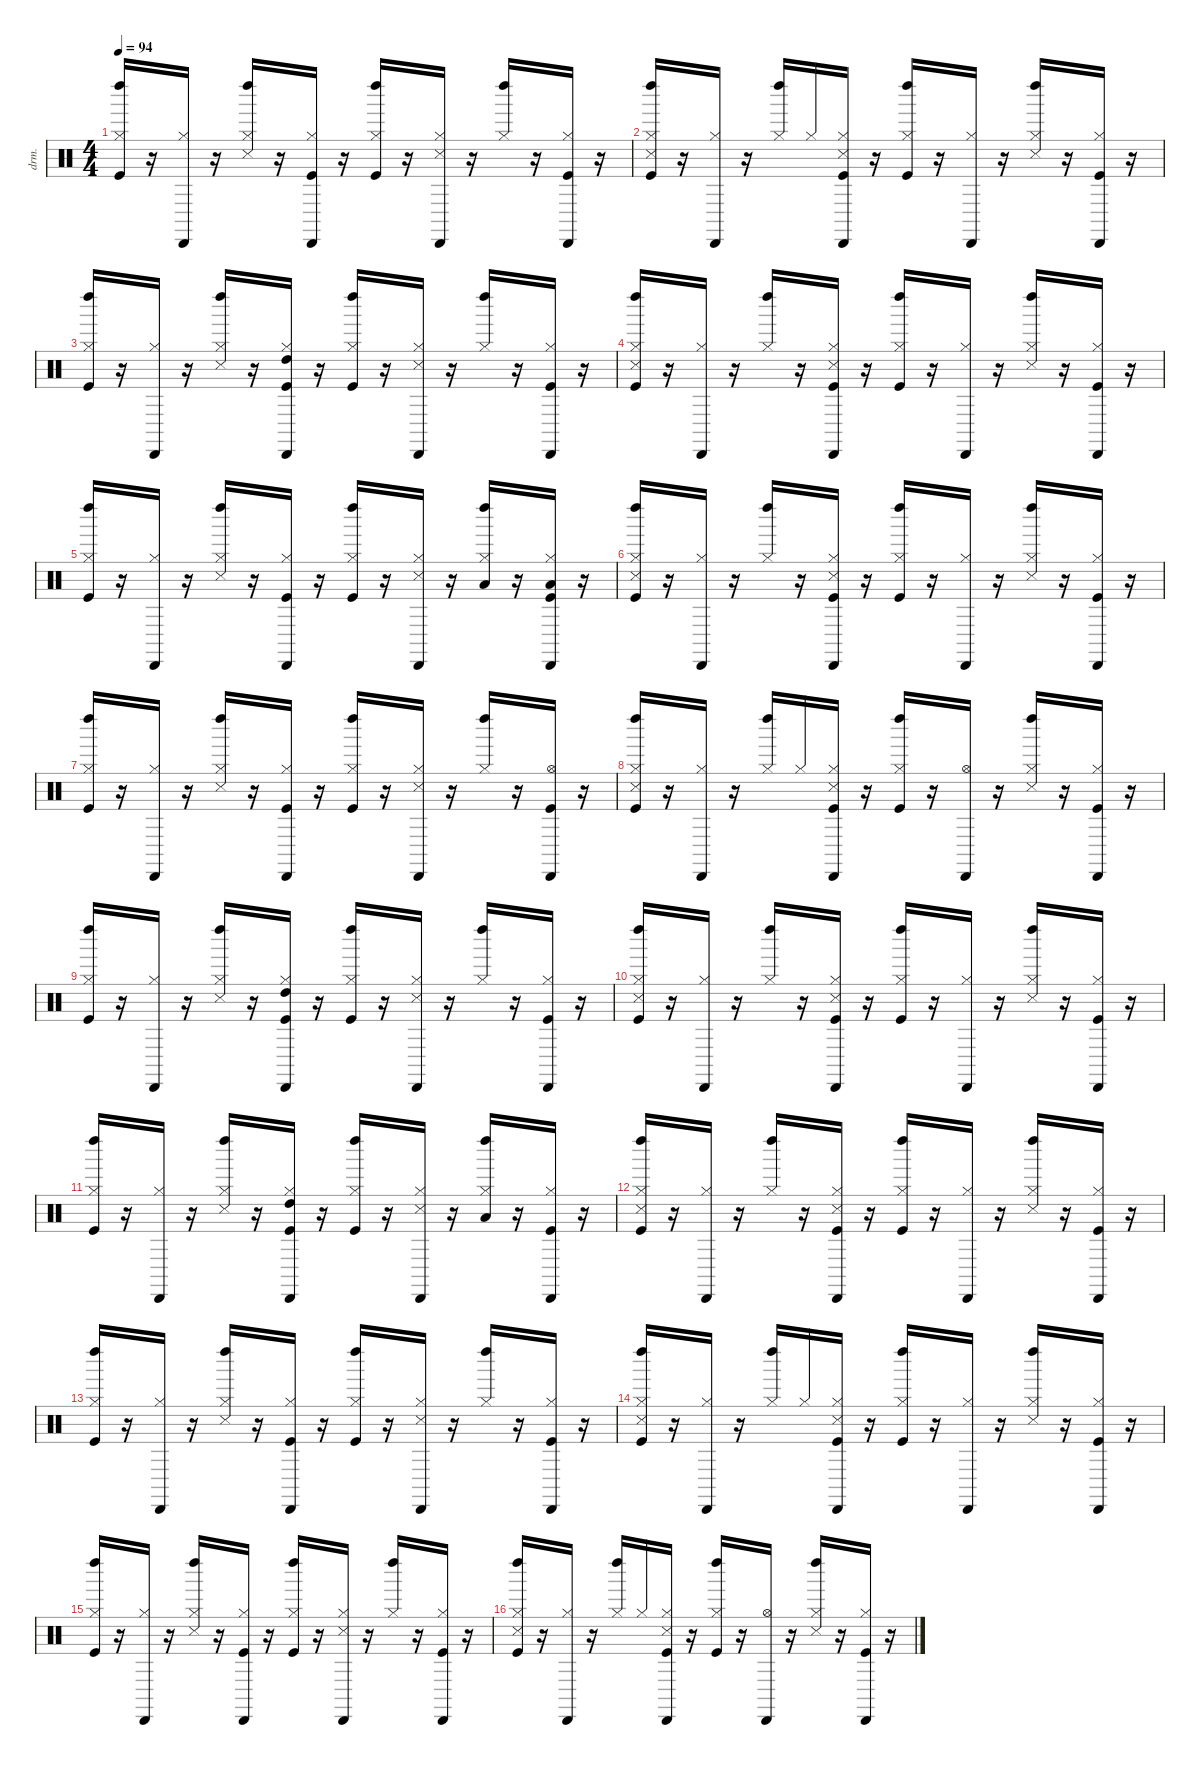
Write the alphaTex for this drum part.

\defaultSystemsLayout 4
\hideDynamics
\bracketExtendMode nobrackets
\otherSystemsTrackNameOrientation horizontal
\track ("Drums" "drm.") {instrument percussion}
\staff {score}
\articulation defaults
\ts (4 4)
\tempo 94
\clef neutral
\ks c
("Left Maraca (hit)" "Hi-Hat (closed)" "Kick (hit)").16{dy mf beam Up} r.16{beam Up} ("Cabasa (hit)" "Hi-Hat (closed)").16{dy p beam Up} r.16{beam Up} ("Left Maraca (hit)" "Hi-Hat (closed)" "Snare (side stick) 3").16{dy mf beam Up} r.16{beam Up} ("Cabasa (hit)" "Hi-Hat (closed)" "Kick (hit)").16{dy p beam Up} r.16{beam Up} ("Left Maraca (hit)" "Hi-Hat (closed)" "Kick (hit)").16{dy mf beam Up} r.16{beam Up} ("Cabasa (hit)" "Hi-Hat (closed)" "Snare (side stick) 3").16{dy p beam Up} r.16{beam Up} ("Left Maraca (hit)" "Hi-Hat (closed)").16{dy mf beam Up} r.16{beam Up} ("Cabasa (hit)" "Hi-Hat (closed)" "Kick (hit)").16{dy p beam Up} r.16{beam Up} |
("Left Maraca (hit)" "Hi-Hat (closed)" "Snare (side stick) 3" "Kick (hit)").16{dy mf beam Up} r.16{beam Up} ("Cabasa (hit)" "Hi-Hat (closed)").16{dy p beam Up} r.16{beam Up} ("Left Maraca (hit)" "Hi-Hat (closed)").16{dy mf beam Up} "Hi-Hat (closed)".16{beam Up} ("Cabasa (hit)" "Hi-Hat (closed)" "Snare (side stick) 3" "Kick (hit)").16{dy p beam Up} r.16{beam Up} ("Left Maraca (hit)" "Hi-Hat (closed)" "Kick (hit)").16{dy mf beam Up} r.16{beam Up} ("Cabasa (hit)" "Hi-Hat (closed)").16{dy p beam Up} r.16{beam Up} ("Left Maraca (hit)" "Hi-Hat (closed)" "Snare (side stick) 3").16{dy mf beam Up} r.16{beam Up} ("Cabasa (hit)" "Hi-Hat (closed)" "Kick (hit)").16{dy p beam Up} r.16{beam Up} |
("Left Maraca (hit)" "Hi-Hat (closed)" "Kick (hit)").16{dy mf beam Up} r.16{beam Up} ("Cabasa (hit)" "Hi-Hat (closed)").16{dy p beam Up} r.16{beam Up} ("Left Maraca (hit)" "Hi-Hat (closed)" "Snare (side stick) 3").16{dy mf beam Up} r.16{beam Up} ("Cabasa (hit)" "High Tom (hit)" "Hi-Hat (closed)" "Kick (hit)").16{dy p beam Up} r.16{beam Up} ("Left Maraca (hit)" "Hi-Hat (closed)" "Kick (hit)").16{dy mf beam Up} r.16{beam Up} ("Cabasa (hit)" "Hi-Hat (closed)" "Snare (side stick) 3").16{dy p beam Up} r.16{beam Up} ("Left Maraca (hit)" "Hi-Hat (closed)").16{dy mf beam Up} r.16{beam Up} ("Cabasa (hit)" "Hi-Hat (closed)" "Kick (hit)").16{dy p beam Up} r.16{beam Up} |
("Left Maraca (hit)" "Hi-Hat (closed)" "Snare (side stick) 3" "Kick (hit)").16{dy mf beam Up} r.16{beam Up} ("Cabasa (hit)" "Hi-Hat (closed)").16{dy p beam Up} r.16{beam Up} ("Left Maraca (hit)" "Hi-Hat (closed)").16{dy mf beam Up} r.16{beam Up} ("Cabasa (hit)" "Hi-Hat (closed)" "Snare (side stick) 3" "Kick (hit)").16{dy p beam Up} r.16{beam Up} ("Left Maraca (hit)" "Hi-Hat (closed)" "Kick (hit)").16{dy mf beam Up} r.16{beam Up} ("Cabasa (hit)" "Hi-Hat (closed)").16{dy p beam Up} r.16{beam Up} ("Left Maraca (hit)" "Hi-Hat (closed)" "Snare (side stick) 3").16{dy mf beam Up} r.16{beam Up} ("Cabasa (hit)" "Hi-Hat (closed)" "Kick (hit)").16{dy p beam Up} r.16{beam Up} |
("Left Maraca (hit)" "Hi-Hat (closed)" "Kick (hit)").16{dy mf beam Up} r.16{beam Up} ("Cabasa (hit)" "Hi-Hat (closed)").16{dy p beam Up} r.16{beam Up} ("Left Maraca (hit)" "Hi-Hat (closed)" "Snare (side stick) 3").16{dy mf beam Up} r.16{beam Up} ("Cabasa (hit)" "Hi-Hat (closed)" "Kick (hit)").16{dy p beam Up} r.16{beam Up} ("Left Maraca (hit)" "Hi-Hat (closed)" "Kick (hit)").16{dy mf beam Up} r.16{beam Up} ("Cabasa (hit)" "Hi-Hat (closed)" "Snare (side stick) 3").16{dy p beam Up} r.16{beam Up} ("Left Maraca (hit)" "Low Tom (hit)" "Hi-Hat (closed)").16{dy mf beam Up} r.16{beam Up} ("Cabasa (hit)" "Low Tom (hit)" "Hi-Hat (closed)" "Kick (hit)").16{dy p beam Up} r.16{beam Up} |
("Left Maraca (hit)" "Hi-Hat (closed)" "Snare (side stick) 3" "Kick (hit)").16{dy mf beam Up} r.16{beam Up} ("Cabasa (hit)" "Hi-Hat (closed)").16{dy p beam Up} r.16{beam Up} ("Left Maraca (hit)" "Hi-Hat (closed)").16{dy mf beam Up} r.16{beam Up} ("Cabasa (hit)" "Hi-Hat (closed)" "Snare (side stick) 3" "Kick (hit)").16{dy p beam Up} r.16{beam Up} ("Left Maraca (hit)" "Hi-Hat (closed)" "Kick (hit)").16{dy mf beam Up} r.16{beam Up} ("Cabasa (hit)" "Hi-Hat (closed)").16{dy p beam Up} r.16{beam Up} ("Left Maraca (hit)" "Hi-Hat (closed)" "Snare (side stick) 3").16{dy mf beam Up} r.16{beam Up} ("Cabasa (hit)" "Hi-Hat (closed)" "Kick (hit)").16{dy p beam Up} r.16{beam Up} |
("Left Maraca (hit)" "Hi-Hat (closed)" "Kick (hit)").16{dy mf beam Up} r.16{beam Up} ("Cabasa (hit)" "Hi-Hat (closed)").16{dy p beam Up} r.16{beam Up} ("Left Maraca (hit)" "Hi-Hat (closed)" "Snare (side stick) 3").16{dy mf beam Up} r.16{beam Up} ("Cabasa (hit)" "Hi-Hat (closed)" "Kick (hit)").16{dy p beam Up} r.16{beam Up} ("Left Maraca (hit)" "Hi-Hat (closed)" "Kick (hit)").16{dy mf beam Up} r.16{beam Up} ("Cabasa (hit)" "Hi-Hat (closed)" "Snare (side stick) 3").16{dy p beam Up} r.16{beam Up} ("Left Maraca (hit)" "Hi-Hat (closed)").16{dy mf beam Up} r.16{beam Up} ("Cabasa (hit)" "Hi-Hat (open)" "Kick (hit)").16{dy p beam Up} r.16{beam Up} |
("Left Maraca (hit)" "Hi-Hat (closed)" "Snare (side stick) 3" "Kick (hit)").16{dy mf beam Up} r.16{beam Up} ("Cabasa (hit)" "Hi-Hat (closed)").16{dy p beam Up} r.16{beam Up} ("Left Maraca (hit)" "Hi-Hat (closed)").16{dy mf beam Up} "Hi-Hat (closed)".16{beam Up} ("Cabasa (hit)" "Hi-Hat (closed)" "Snare (side stick) 3" "Kick (hit)").16{dy p beam Up} r.16{beam Up} ("Left Maraca (hit)" "Hi-Hat (closed)" "Kick (hit)").16{dy mf beam Up} r.16{beam Up} ("Cabasa (hit)" "Hi-Hat (open)").16{dy p beam Up} r.16{beam Up} ("Left Maraca (hit)" "Hi-Hat (closed)" "Snare (side stick) 3").16{dy mf beam Up} r.16{beam Up} ("Cabasa (hit)" "Hi-Hat (closed)" "Kick (hit)").16{dy p beam Up} r.16{beam Up} |
("Left Maraca (hit)" "Hi-Hat (closed)" "Kick (hit)").16{dy mf beam Up} r.16{beam Up} ("Cabasa (hit)" "Hi-Hat (closed)").16{dy p beam Up} r.16{beam Up} ("Left Maraca (hit)" "Hi-Hat (closed)" "Snare (side stick) 3").16{dy mf beam Up} r.16{beam Up} ("Cabasa (hit)" "High Tom (hit)" "Hi-Hat (closed)" "Kick (hit)").16{dy p beam Up} r.16{beam Up} ("Left Maraca (hit)" "Hi-Hat (closed)" "Kick (hit)").16{dy mf beam Up} r.16{beam Up} ("Cabasa (hit)" "Hi-Hat (closed)" "Snare (side stick) 3").16{dy p beam Up} r.16{beam Up} ("Left Maraca (hit)" "Hi-Hat (closed)").16{dy mf beam Up} r.16{beam Up} ("Cabasa (hit)" "Hi-Hat (closed)" "Kick (hit)").16{dy p beam Up} r.16{beam Up} |
("Left Maraca (hit)" "Hi-Hat (closed)" "Snare (side stick) 3" "Kick (hit)").16{dy mf beam Up} r.16{beam Up} ("Cabasa (hit)" "Hi-Hat (closed)").16{dy p beam Up} r.16{beam Up} ("Left Maraca (hit)" "Hi-Hat (closed)").16{dy mf beam Up} r.16{beam Up} ("Cabasa (hit)" "Hi-Hat (closed)" "Snare (side stick) 3" "Kick (hit)").16{dy p beam Up} r.16{beam Up} ("Left Maraca (hit)" "Hi-Hat (closed)" "Kick (hit)").16{dy mf beam Up} r.16{beam Up} ("Cabasa (hit)" "Hi-Hat (closed)").16{dy p beam Up} r.16{beam Up} ("Left Maraca (hit)" "Hi-Hat (closed)" "Snare (side stick) 3").16{dy mf beam Up} r.16{beam Up} ("Cabasa (hit)" "Hi-Hat (closed)" "Kick (hit)").16{dy p beam Up} r.16{beam Up} |
("Left Maraca (hit)" "Hi-Hat (closed)" "Kick (hit)").16{dy mf beam Up} r.16{beam Up} ("Cabasa (hit)" "Hi-Hat (closed)").16{dy p beam Up} r.16{beam Up} ("Left Maraca (hit)" "Hi-Hat (closed)" "Snare (side stick) 3").16{dy mf beam Up} r.16{beam Up} ("Cabasa (hit)" "High Tom (hit)" "Hi-Hat (closed)" "Kick (hit)").16{dy p beam Up} r.16{beam Up} ("Left Maraca (hit)" "Hi-Hat (closed)" "Kick (hit)").16{dy mf beam Up} r.16{beam Up} ("Cabasa (hit)" "Hi-Hat (closed)" "Snare (side stick) 3").16{dy p beam Up} r.16{beam Up} ("Left Maraca (hit)" "Low Tom (hit)" "Hi-Hat (closed)").16{dy mf beam Up} r.16{beam Up} ("Cabasa (hit)" "Hi-Hat (closed)" "Kick (hit)").16{dy p beam Up} r.16{beam Up} |
("Left Maraca (hit)" "Hi-Hat (closed)" "Snare (side stick) 3" "Kick (hit)").16{dy mf beam Up} r.16{beam Up} ("Cabasa (hit)" "Hi-Hat (closed)").16{dy p beam Up} r.16{beam Up} ("Left Maraca (hit)" "Hi-Hat (closed)").16{dy mf beam Up} r.16{beam Up} ("Cabasa (hit)" "Hi-Hat (closed)" "Snare (side stick) 3" "Kick (hit)").16{dy p beam Up} r.16{beam Up} ("Left Maraca (hit)" "Hi-Hat (closed)" "Kick (hit)").16{dy mf beam Up} r.16{beam Up} ("Cabasa (hit)" "Hi-Hat (closed)").16{dy p beam Up} r.16{beam Up} ("Left Maraca (hit)" "Hi-Hat (closed)" "Snare (side stick) 3").16{dy mf beam Up} r.16{beam Up} ("Cabasa (hit)" "Hi-Hat (closed)" "Kick (hit)").16{dy p beam Up} r.16{beam Up} |
("Left Maraca (hit)" "Hi-Hat (closed)" "Kick (hit)").16{dy mf beam Up} r.16{beam Up} ("Cabasa (hit)" "Hi-Hat (closed)").16{dy p beam Up} r.16{beam Up} ("Left Maraca (hit)" "Hi-Hat (closed)" "Snare (side stick) 3").16{dy mf beam Up} r.16{beam Up} ("Cabasa (hit)" "Hi-Hat (closed)" "Kick (hit)").16{dy p beam Up} r.16{beam Up} ("Left Maraca (hit)" "Hi-Hat (closed)" "Kick (hit)").16{dy mf beam Up} r.16{beam Up} ("Cabasa (hit)" "Hi-Hat (closed)" "Snare (side stick) 3").16{dy p beam Up} r.16{beam Up} ("Left Maraca (hit)" "Hi-Hat (closed)").16{dy mf beam Up} r.16{beam Up} ("Cabasa (hit)" "Hi-Hat (closed)" "Kick (hit)").16{dy p beam Up} r.16{beam Up} |
("Left Maraca (hit)" "Hi-Hat (closed)" "Snare (side stick) 3" "Kick (hit)").16{dy mf beam Up} r.16{beam Up} ("Cabasa (hit)" "Hi-Hat (closed)").16{dy p beam Up} r.16{beam Up} ("Left Maraca (hit)" "Hi-Hat (closed)").16{dy mf beam Up} "Hi-Hat (closed)".16{beam Up} ("Cabasa (hit)" "Hi-Hat (closed)" "Snare (side stick) 3" "Kick (hit)").16{dy p beam Up} r.16{beam Up} ("Left Maraca (hit)" "Hi-Hat (closed)" "Kick (hit)").16{dy mf beam Up} r.16{beam Up} ("Cabasa (hit)" "Hi-Hat (closed)").16{dy p beam Up} r.16{beam Up} ("Left Maraca (hit)" "Hi-Hat (closed)" "Snare (side stick) 3").16{dy mf beam Up} r.16{beam Up} ("Cabasa (hit)" "Hi-Hat (closed)" "Kick (hit)").16{dy p beam Up} r.16{beam Up} |
("Left Maraca (hit)" "Hi-Hat (closed)" "Kick (hit)").16{dy mf beam Up} r.16{beam Up} ("Cabasa (hit)" "Hi-Hat (closed)").16{dy p beam Up} r.16{beam Up} ("Left Maraca (hit)" "Hi-Hat (closed)" "Snare (side stick) 3").16{dy mf beam Up} r.16{beam Up} ("Cabasa (hit)" "Hi-Hat (closed)" "Kick (hit)").16{dy p beam Up} r.16{beam Up} ("Left Maraca (hit)" "Hi-Hat (closed)" "Kick (hit)").16{dy mf beam Up} r.16{beam Up} ("Cabasa (hit)" "Hi-Hat (closed)" "Snare (side stick) 3").16{dy p beam Up} r.16{beam Up} ("Left Maraca (hit)" "Hi-Hat (closed)").16{dy mf beam Up} r.16{beam Up} ("Cabasa (hit)" "Hi-Hat (closed)" "Kick (hit)").16{dy p beam Up} r.16{beam Up} |
("Left Maraca (hit)" "Hi-Hat (closed)" "Snare (side stick) 3" "Kick (hit)").16{dy mf beam Up} r.16{beam Up} ("Cabasa (hit)" "Hi-Hat (closed)").16{dy p beam Up} r.16{beam Up} ("Left Maraca (hit)" "Hi-Hat (closed)").16{dy mf beam Up} "Hi-Hat (closed)".16{beam Up} ("Cabasa (hit)" "Hi-Hat (closed)" "Snare (side stick) 3" "Kick (hit)").16{dy p beam Up} r.16{beam Up} ("Left Maraca (hit)" "Hi-Hat (closed)" "Kick (hit)").16{dy mf beam Up} r.16{beam Up} ("Cabasa (hit)" "Hi-Hat (open)").16{dy p beam Up} r.16{beam Up} ("Left Maraca (hit)" "Hi-Hat (closed)" "Snare (side stick) 3").16{dy mf beam Up} r.16{beam Up} ("Cabasa (hit)" "Hi-Hat (closed)" "Kick (hit)").16{dy p beam Up} r.16{beam Up}
